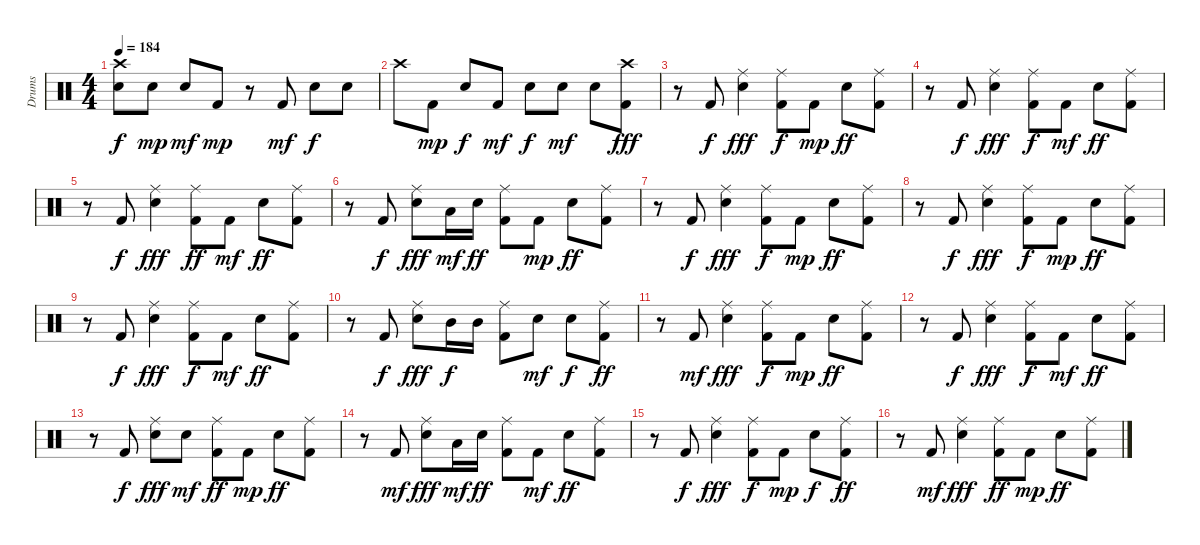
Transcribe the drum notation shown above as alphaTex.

\track ("Drums" "Drums") {instrument percussion}
\staff {score}
\articulation defaults
\ts (4 4)
\tempo 184
\clef neutral
\ks c
("Snare (hit) 2" "Crash high (hit)").8{dy f} "Snare (hit) 2".8{dy mp} "Snare (hit) 2".8{dy mf} "Kick (hit) 2".8{dy mp} r.8 "Kick (hit) 2".8{dy mf} "Snare (hit) 2".8{dy f} "Snare (hit) 2".8 |
"Crash high (hit)".8 "Kick (hit) 2".8{dy mp} "Snare (hit) 2".8{dy f} "Kick (hit) 2".8{dy mf} "Snare (hit) 2".8{dy f} "Snare (hit) 2".8{dy mf} "Snare (hit) 2".8 ("Kick (hit) 2" "Crash high (hit)").8{dy fff} |
r.8 "Kick (hit) 2".8{dy f} ("Snare (hit) 2" "Ride (middle)").4{dy fff} ("Kick (hit) 2" "Ride (middle)").8{dy f} "Kick (hit) 2".8{dy mp} "Snare (hit) 2".8{dy ff} ("Kick (hit) 2" "Ride (middle)").8 |
r.8 "Kick (hit) 2".8{dy f} ("Snare (hit) 2" "Ride (middle)").4{dy fff} ("Kick (hit) 2" "Ride (middle)").8{dy f} "Kick (hit) 2".8{dy mf} "Snare (hit) 2".8{dy ff} ("Kick (hit) 2" "Ride (middle)").8 |
r.8 "Kick (hit) 2".8{dy f} ("Snare (hit) 2" "Ride (middle)").4{dy fff} ("Kick (hit) 2" "Ride (middle)").8{dy ff} "Kick (hit) 2".8{dy mf} "Snare (hit) 2".8{dy ff} ("Kick (hit) 2" "Ride (middle)").8 |
r.8 "Kick (hit) 2".8{dy f} ("Snare (hit) 2" "Ride (middle)").8{dy fff} "Low Floor Tom (hit)".16{dy mf} "Snare (hit) 2".16{dy ff} ("Kick (hit) 2" "Ride (middle)").8 "Kick (hit) 2".8{dy mp} "Snare (hit) 2".8{dy ff} ("Kick (hit) 2" "Ride (middle)").8 |
r.8 "Kick (hit) 2".8{dy f} ("Snare (hit) 2" "Ride (middle)").4{dy fff} ("Kick (hit) 2" "Ride (middle)").8{dy f} "Kick (hit) 2".8{dy mp} "Snare (hit) 2".8{dy ff} ("Kick (hit) 2" "Ride (middle)").8 |
r.8 "Kick (hit) 2".8{dy f} ("Snare (hit) 2" "Ride (middle)").4{dy fff} ("Kick (hit) 2" "Ride (middle)").8{dy f} "Kick (hit) 2".8{dy mp} "Snare (hit) 2".8{dy ff} ("Kick (hit) 2" "Ride (middle)").8 |
r.8 "Kick (hit) 2".8{dy f} ("Snare (hit) 2" "Ride (middle)").4{dy fff} ("Kick (hit) 2" "Ride (middle)").8{dy f} "Kick (hit) 2".8{dy mf} "Snare (hit) 2".8{dy ff} ("Kick (hit) 2" "Ride (middle)").8 |
r.8 "Kick (hit) 2".8{dy f} ("Snare (hit) 2" "Ride (middle)").8{dy fff} "Mid Tom (hit)".16{dy f} "Mid Tom (hit)".16 ("Kick (hit) 2" "Ride (middle)").8 "Snare (hit) 2".8{dy mf} "Snare (hit) 2".8{dy f} ("Kick (hit) 2" "Ride (middle)").8{dy ff} |
r.8 "Kick (hit) 2".8{dy mf} ("Snare (hit) 2" "Ride (middle)").4{dy fff} ("Kick (hit) 2" "Ride (middle)").8{dy f} "Kick (hit) 2".8{dy mp} "Snare (hit) 2".8{dy ff} ("Kick (hit) 2" "Ride (middle)").8 |
r.8 "Kick (hit) 2".8{dy f} ("Snare (hit) 2" "Ride (middle)").4{dy fff} ("Kick (hit) 2" "Ride (middle)").8{dy f} "Kick (hit) 2".8{dy mf} "Snare (hit) 2".8{dy ff} ("Kick (hit) 2" "Ride (middle)").8 |
r.8 "Kick (hit) 2".8{dy f} ("Snare (hit) 2" "Ride (middle)").8{dy fff} "Snare (hit) 2".8{dy mf} ("Kick (hit) 2" "Ride (middle)").8{dy ff} "Kick (hit) 2".8{dy mp} "Snare (hit) 2".8{dy ff} ("Kick (hit) 2" "Ride (middle)").8 |
r.8 "Kick (hit) 2".8{dy mf} ("Snare (hit) 2" "Ride (middle)").8{dy fff} "Low Floor Tom (hit)".16{dy mf} "Snare (hit) 2".16{dy ff} ("Kick (hit) 2" "Ride (middle)").8 "Kick (hit) 2".8{dy mf} "Snare (hit) 2".8{dy ff} ("Kick (hit) 2" "Ride (middle)").8 |
r.8 "Kick (hit) 2".8{dy f} ("Snare (hit) 2" "Ride (middle)").4{dy fff} ("Kick (hit) 2" "Ride (middle)").8{dy f} "Kick (hit) 2".8{dy mp} "Snare (hit) 2".8{dy f} ("Kick (hit) 2" "Ride (middle)").8{dy ff} |
r.8 "Kick (hit) 2".8{dy mf} ("Snare (hit) 2" "Ride (middle)").4{dy fff} ("Kick (hit) 2" "Ride (middle)").8{dy ff} "Kick (hit) 2".8{dy mp} "Snare (hit) 2".8{dy ff} ("Kick (hit) 2" "Ride (middle)").8
